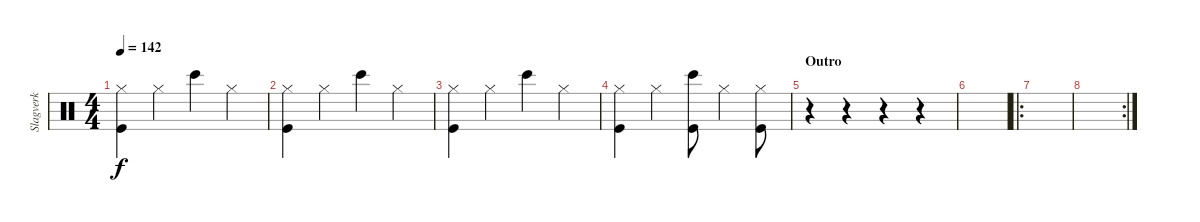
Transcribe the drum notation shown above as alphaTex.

\track ("Slagverk" "Slagverk") {instrument percussion}
\staff {score}
\articulation defaults
\ts (4 4)
\tempo 142
\clef neutral
\ks c
("Hi-Hat (closed)" "Kick (hit)").4{dy f} "Hi-Hat (closed)".4 "Bongo High (hit)".4 "Hi-Hat (closed)".4 |
("Hi-Hat (closed)" "Kick (hit)").4 "Hi-Hat (closed)".4 "Bongo High (hit)".4 "Hi-Hat (closed)".4 |
("Hi-Hat (closed)" "Kick (hit)").4 "Hi-Hat (closed)".4 "Bongo High (hit)".4 "Hi-Hat (closed)".4 |
("Hi-Hat (closed)" "Kick (hit)").4 "Hi-Hat (closed)".4 ("Bongo High (hit)" "Kick (hit)").8 "Hi-Hat (closed)".4 ("Hi-Hat (closed)" "Kick (hit)").8 |
\section ("" "Outro")
r.4 r.4 r.4 r.4 |
|
\ro
|
\rc 2
